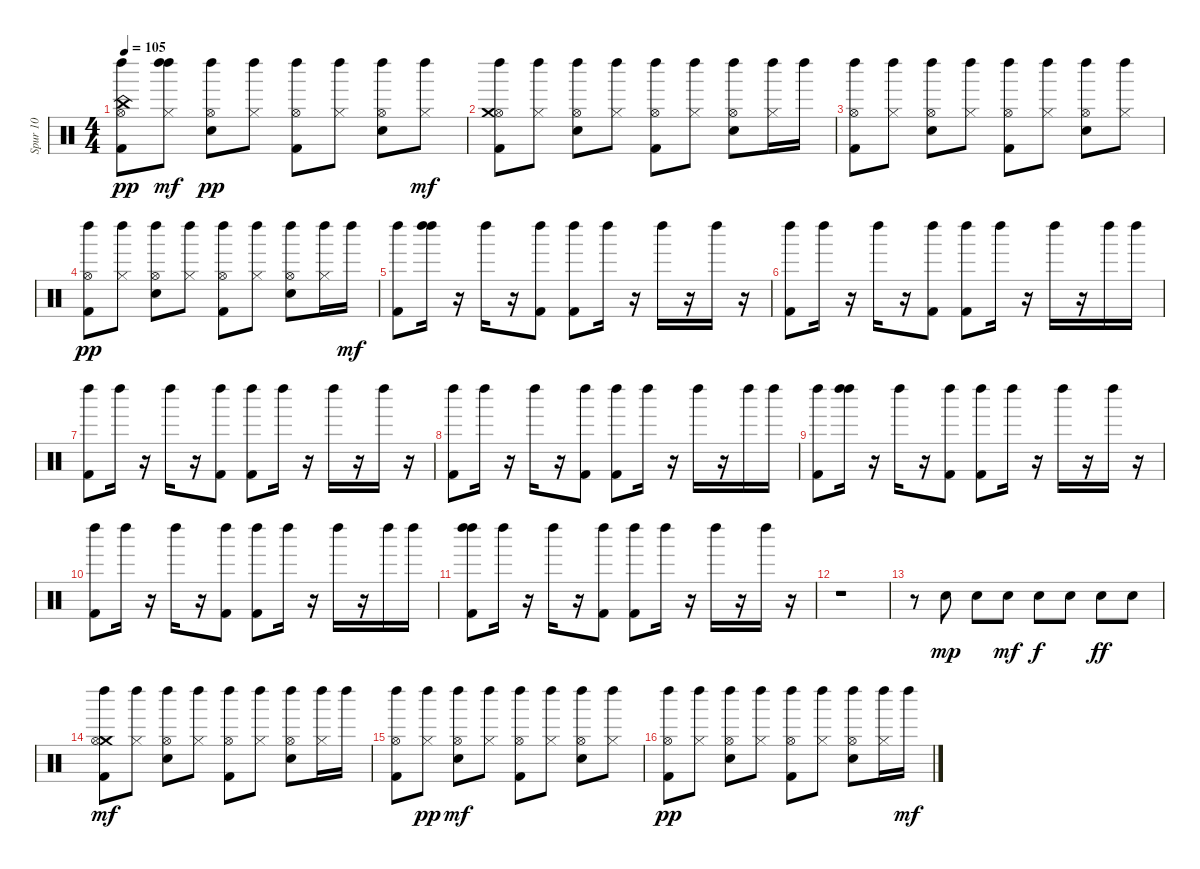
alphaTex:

\track ("Spur 10" "Spur 10") {instrument percussion}
\staff {score}
\articulation defaults
\ts (4 4)
\tempo 105
\clef neutral
\ks c
("Left Maraca (hit)" "Hi-Hat (open)" "Kick (hit) 2" "China (hit)").8{dy pp} ("Left Maraca (hit)" "Hi-Hat (closed)" "Left Maraca (hit)").8{dy mf} ("Left Maraca (hit)" "Hi-Hat (open)" "Snare (hit) 2").8{dy pp} ("Left Maraca (hit)" "Hi-Hat (closed)").8 ("Left Maraca (hit)" "Hi-Hat (open)" "Kick (hit) 2").8 ("Left Maraca (hit)" "Hi-Hat (closed)").8 ("Left Maraca (hit)" "Hi-Hat (open)" "Snare (hit) 2").8 ("Hi-Hat (closed)" "Left Maraca (hit)").8{dy mf} |
("Hi-Hat (open)" "Crash medium (hit)" "Kick (hit) 2" "Left Maraca (hit)").8 ("Hi-Hat (closed)" "Left Maraca (hit)").8 ("Hi-Hat (open)" "Snare (hit) 2" "Left Maraca (hit)").8 ("Hi-Hat (closed)" "Left Maraca (hit)").8 ("Hi-Hat (open)" "Kick (hit) 2" "Left Maraca (hit)").8 ("Hi-Hat (closed)" "Left Maraca (hit)").8 ("Hi-Hat (open)" "Snare (hit) 2" "Left Maraca (hit)").8 ("Hi-Hat (closed)" "Left Maraca (hit)").16 "Left Maraca (hit)".16 |
("Hi-Hat (open)" "Kick (hit) 2" "Left Maraca (hit)").8 ("Hi-Hat (closed)" "Left Maraca (hit)").8 ("Hi-Hat (open)" "Snare (hit) 2" "Left Maraca (hit)").8 ("Hi-Hat (closed)" "Left Maraca (hit)").8 ("Hi-Hat (open)" "Kick (hit) 2" "Left Maraca (hit)").8 ("Hi-Hat (closed)" "Left Maraca (hit)").8 ("Hi-Hat (open)" "Snare (hit) 2" "Left Maraca (hit)").8 ("Hi-Hat (closed)" "Left Maraca (hit)").8 |
("Left Maraca (hit)" "Kick (hit) 2" "Hi-Hat (open)").8{dy pp} ("Left Maraca (hit)" "Hi-Hat (closed)").8 ("Left Maraca (hit)" "Snare (hit) 2" "Hi-Hat (open)").8 ("Left Maraca (hit)" "Hi-Hat (closed)").8 ("Left Maraca (hit)" "Kick (hit) 2" "Hi-Hat (open)").8 ("Left Maraca (hit)" "Hi-Hat (closed)").8 ("Left Maraca (hit)" "Snare (hit) 2" "Hi-Hat (open)").8 ("Left Maraca (hit)" "Hi-Hat (closed)").16 "Left Maraca (hit)".16{dy mf} |
("Left Maraca (hit)" "Kick (hit) 2").8 ("Left Maraca (hit)" "Left Maraca (hit)").16 r.16 "Left Maraca (hit)".16 r.16 ("Left Maraca (hit)" "Kick (hit) 2").8 ("Left Maraca (hit)" "Kick (hit) 2").8 "Left Maraca (hit)".16 r.16 "Left Maraca (hit)".16 r.16 "Left Maraca (hit)".16 r.16 |
("Kick (hit) 2" "Left Maraca (hit)").8 "Left Maraca (hit)".16 r.16 "Left Maraca (hit)".16 r.16 ("Kick (hit) 2" "Left Maraca (hit)").8 ("Kick (hit) 2" "Left Maraca (hit)").8 "Left Maraca (hit)".16 r.16 "Left Maraca (hit)".16 r.16 "Left Maraca (hit)".16 "Left Maraca (hit)".16 |
("Kick (hit) 2" "Left Maraca (hit)").8 "Left Maraca (hit)".16 r.16 "Left Maraca (hit)".16 r.16 ("Kick (hit) 2" "Left Maraca (hit)").8 ("Kick (hit) 2" "Left Maraca (hit)").8 "Left Maraca (hit)".16 r.16 "Left Maraca (hit)".16 r.16 "Left Maraca (hit)".16 r.16 |
("Kick (hit) 2" "Left Maraca (hit)").8 "Left Maraca (hit)".16 r.16 "Left Maraca (hit)".16 r.16 ("Kick (hit) 2" "Left Maraca (hit)").8 ("Kick (hit) 2" "Left Maraca (hit)").8 "Left Maraca (hit)".16 r.16 "Left Maraca (hit)".16 r.16 "Left Maraca (hit)".16 "Left Maraca (hit)".16 |
("Kick (hit) 2" "Left Maraca (hit)").8 ("Left Maraca (hit)" "Left Maraca (hit)").16 r.16 "Left Maraca (hit)".16 r.16 ("Kick (hit) 2" "Left Maraca (hit)").8 ("Kick (hit) 2" "Left Maraca (hit)").8 "Left Maraca (hit)".16 r.16 "Left Maraca (hit)".16 r.16 "Left Maraca (hit)".16 r.16 |
("Kick (hit) 2" "Left Maraca (hit)").8 "Left Maraca (hit)".16 r.16 "Left Maraca (hit)".16 r.16 ("Kick (hit) 2" "Left Maraca (hit)").8 ("Kick (hit) 2" "Left Maraca (hit)").8 "Left Maraca (hit)".16 r.16 "Left Maraca (hit)".16 r.16 "Left Maraca (hit)".16 "Left Maraca (hit)".16 |
("Kick (hit) 2" "Left Maraca (hit)" "Left Maraca (hit)").8 "Left Maraca (hit)".16 r.16 "Left Maraca (hit)".16 r.16 ("Kick (hit) 2" "Left Maraca (hit)").8 ("Kick (hit) 2" "Left Maraca (hit)").8 "Left Maraca (hit)".16 r.16 "Left Maraca (hit)".16 r.16 "Left Maraca (hit)".16 r.16 |
r.1 |
r.8 "Snare (hit) 2".8{dy mp} "Snare (hit) 2".8 "Snare (hit) 2".8{dy mf} "Snare (hit) 2".8{dy f} "Snare (hit) 2".8 "Snare (hit) 2".8{dy ff} "Snare (hit) 2".8 |
("Crash medium (hit)" "Kick (hit) 2" "Hi-Hat (open)" "Left Maraca (hit)").8{dy mf} ("Hi-Hat (closed)" "Left Maraca (hit)").8 ("Snare (hit) 2" "Hi-Hat (open)" "Left Maraca (hit)").8 ("Hi-Hat (closed)" "Left Maraca (hit)").8 ("Kick (hit) 2" "Hi-Hat (open)" "Left Maraca (hit)").8 ("Hi-Hat (closed)" "Left Maraca (hit)").8 ("Snare (hit) 2" "Hi-Hat (open)" "Left Maraca (hit)").8 ("Hi-Hat (closed)" "Left Maraca (hit)").16 "Left Maraca (hit)".16 |
("Kick (hit) 2" "Hi-Hat (open)" "Left Maraca (hit)").8 ("Left Maraca (hit)" "Hi-Hat (closed)").8{dy pp} ("Snare (hit) 2" "Hi-Hat (open)" "Left Maraca (hit)").8{dy mf} ("Hi-Hat (closed)" "Left Maraca (hit)").8 ("Kick (hit) 2" "Hi-Hat (open)" "Left Maraca (hit)").8 ("Hi-Hat (closed)" "Left Maraca (hit)").8 ("Snare (hit) 2" "Hi-Hat (open)" "Left Maraca (hit)").8 ("Hi-Hat (closed)" "Left Maraca (hit)").8 |
("Left Maraca (hit)" "Hi-Hat (open)" "Kick (hit) 2").8{dy pp} ("Left Maraca (hit)" "Hi-Hat (closed)").8 ("Left Maraca (hit)" "Hi-Hat (open)" "Snare (hit) 2").8 ("Left Maraca (hit)" "Hi-Hat (closed)").8 ("Left Maraca (hit)" "Hi-Hat (open)" "Kick (hit) 2").8 ("Left Maraca (hit)" "Hi-Hat (closed)").8 ("Left Maraca (hit)" "Hi-Hat (open)" "Snare (hit) 2").8 ("Left Maraca (hit)" "Hi-Hat (closed)").16 "Left Maraca (hit)".16{dy mf}
